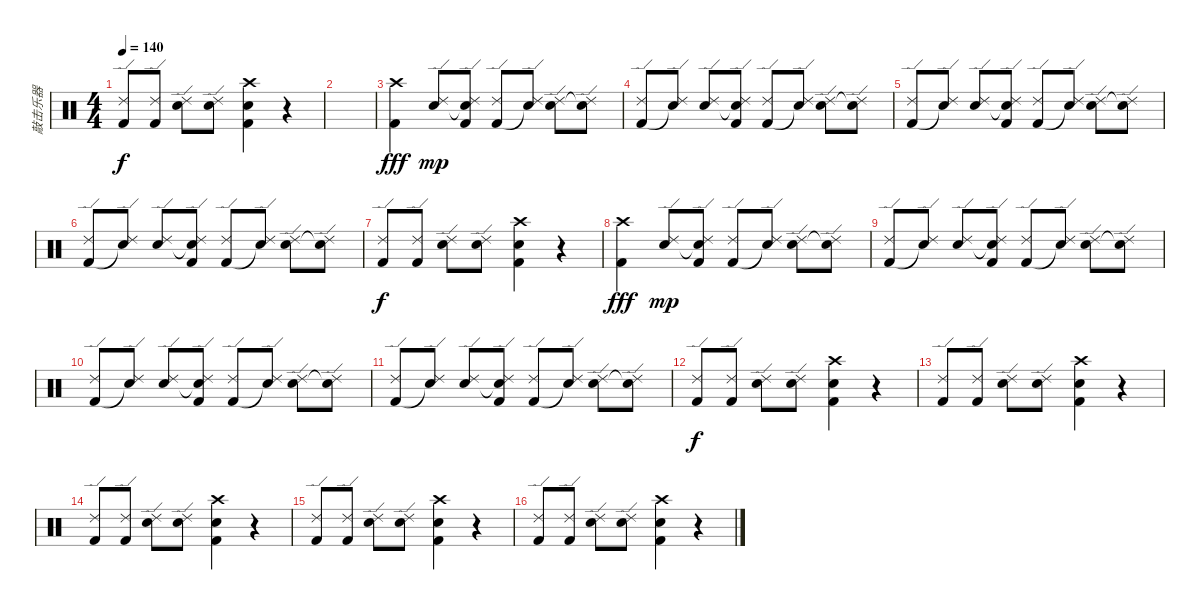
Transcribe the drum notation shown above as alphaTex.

\track ("敲击乐器" "敲击乐器") {instrument percussion}
\staff {score}
\articulation defaults
\ts (4 4)
\tempo 140
\clef neutral
\ks c
("Kick (hit) 2" "Ride (edge) 2").8{dy f} ("Kick (hit) 2" "Ride (edge) 2").8 ("Snare (hit) 2" "Ride (edge) 2").8 ("Snare (hit) 2" "Ride (edge) 2").8 ("Crash high (hit)" "Snare (hit) 2" "Kick (hit) 2").4 r.4 |
|
("Kick (hit) 2" "Crash high (hit)").4{dy fff} ("Electric Snare (hit)" "Ride (edge) 2").8{dy mp} ("Snare (hit)"{t} "Kick (hit) 2" "Ride (edge) 2").8 ("Kick (hit) 2" "Ride (edge) 2").8 ("Snare (hit)"{t} "Ride (edge) 2").8 ("Electric Snare (hit)" "Ride (edge) 2").8 ("Snare (hit)"{t} "Ride (edge) 2").8 |
("Kick (hit) 2" "Ride (edge) 2").8 ("Snare (hit)"{t} "Ride (edge) 2").8 ("Electric Snare (hit)" "Ride (edge) 2").8 ("Snare (hit)"{t} "Kick (hit) 2" "Ride (edge) 2").8 ("Kick (hit) 2" "Ride (edge) 2").8 ("Snare (hit)"{t} "Ride (edge) 2").8 ("Electric Snare (hit)" "Ride (edge) 2").8 ("Snare (hit)"{t} "Ride (edge) 2").8 |
("Kick (hit) 2" "Ride (edge) 2").8 ("Snare (hit)"{t} "Ride (edge) 2").8 ("Electric Snare (hit)" "Ride (edge) 2").8 ("Snare (hit)"{t} "Kick (hit) 2" "Ride (edge) 2").8 ("Kick (hit) 2" "Ride (edge) 2").8 ("Snare (hit)"{t} "Ride (edge) 2").8 ("Electric Snare (hit)" "Ride (edge) 2").8 ("Snare (hit)"{t} "Ride (edge) 2").8 |
("Kick (hit) 2" "Ride (edge) 2").8 ("Snare (hit)"{t} "Ride (edge) 2").8 ("Electric Snare (hit)" "Ride (edge) 2").8 ("Snare (hit)"{t} "Kick (hit) 2" "Ride (edge) 2").8 ("Kick (hit) 2" "Ride (edge) 2").8 ("Snare (hit)"{t} "Ride (edge) 2").8 ("Electric Snare (hit)" "Ride (edge) 2").8 ("Snare (hit)"{t} "Ride (edge) 2").8 |
("Kick (hit) 2" "Ride (edge) 2").8{dy f} ("Kick (hit) 2" "Ride (edge) 2").8 ("Snare (hit) 2" "Ride (edge) 2").8 ("Snare (hit) 2" "Ride (edge) 2").8 ("Crash high (hit)" "Snare (hit) 2" "Kick (hit) 2").4 r.4 |
("Kick (hit) 2" "Crash high (hit)").4{dy fff} ("Electric Snare (hit)" "Ride (edge) 2").8{dy mp} ("Snare (hit)"{t} "Kick (hit) 2" "Ride (edge) 2").8 ("Kick (hit) 2" "Ride (edge) 2").8 ("Snare (hit)"{t} "Ride (edge) 2").8 ("Electric Snare (hit)" "Ride (edge) 2").8 ("Snare (hit)"{t} "Ride (edge) 2").8 |
("Kick (hit) 2" "Ride (edge) 2").8 ("Snare (hit)"{t} "Ride (edge) 2").8 ("Electric Snare (hit)" "Ride (edge) 2").8 ("Snare (hit)"{t} "Kick (hit) 2" "Ride (edge) 2").8 ("Kick (hit) 2" "Ride (edge) 2").8 ("Snare (hit)"{t} "Ride (edge) 2").8 ("Electric Snare (hit)" "Ride (edge) 2").8 ("Snare (hit)"{t} "Ride (edge) 2").8 |
("Kick (hit) 2" "Ride (edge) 2").8 ("Snare (hit)"{t} "Ride (edge) 2").8 ("Electric Snare (hit)" "Ride (edge) 2").8 ("Snare (hit)"{t} "Kick (hit) 2" "Ride (edge) 2").8 ("Kick (hit) 2" "Ride (edge) 2").8 ("Snare (hit)"{t} "Ride (edge) 2").8 ("Electric Snare (hit)" "Ride (edge) 2").8 ("Snare (hit)"{t} "Ride (edge) 2").8 |
("Kick (hit) 2" "Ride (edge) 2").8 ("Snare (hit)"{t} "Ride (edge) 2").8 ("Electric Snare (hit)" "Ride (edge) 2").8 ("Snare (hit)"{t} "Kick (hit) 2" "Ride (edge) 2").8 ("Kick (hit) 2" "Ride (edge) 2").8 ("Snare (hit)"{t} "Ride (edge) 2").8 ("Electric Snare (hit)" "Ride (edge) 2").8 ("Snare (hit)"{t} "Ride (edge) 2").8 |
("Kick (hit) 2" "Ride (edge) 2").8{dy f} ("Kick (hit) 2" "Ride (edge) 2").8 ("Snare (hit) 2" "Ride (edge) 2").8 ("Snare (hit) 2" "Ride (edge) 2").8 ("Crash high (hit)" "Snare (hit) 2" "Kick (hit) 2").4 r.4 |
("Kick (hit) 2" "Ride (edge) 2").8 ("Kick (hit) 2" "Ride (edge) 2").8 ("Snare (hit) 2" "Ride (edge) 2").8 ("Snare (hit) 2" "Ride (edge) 2").8 ("Crash high (hit)" "Snare (hit) 2" "Kick (hit) 2").4 r.4 |
("Kick (hit) 2" "Ride (edge) 2").8 ("Kick (hit) 2" "Ride (edge) 2").8 ("Snare (hit) 2" "Ride (edge) 2").8 ("Snare (hit) 2" "Ride (edge) 2").8 ("Crash high (hit)" "Snare (hit) 2" "Kick (hit) 2").4 r.4 |
("Kick (hit) 2" "Ride (edge) 2").8 ("Kick (hit) 2" "Ride (edge) 2").8 ("Snare (hit) 2" "Ride (edge) 2").8 ("Snare (hit) 2" "Ride (edge) 2").8 ("Crash high (hit)" "Snare (hit) 2" "Kick (hit) 2").4 r.4 |
("Kick (hit) 2" "Ride (edge) 2").8 ("Kick (hit) 2" "Ride (edge) 2").8 ("Snare (hit) 2" "Ride (edge) 2").8 ("Snare (hit) 2" "Ride (edge) 2").8 ("Crash high (hit)" "Snare (hit) 2" "Kick (hit) 2").4 r.4
